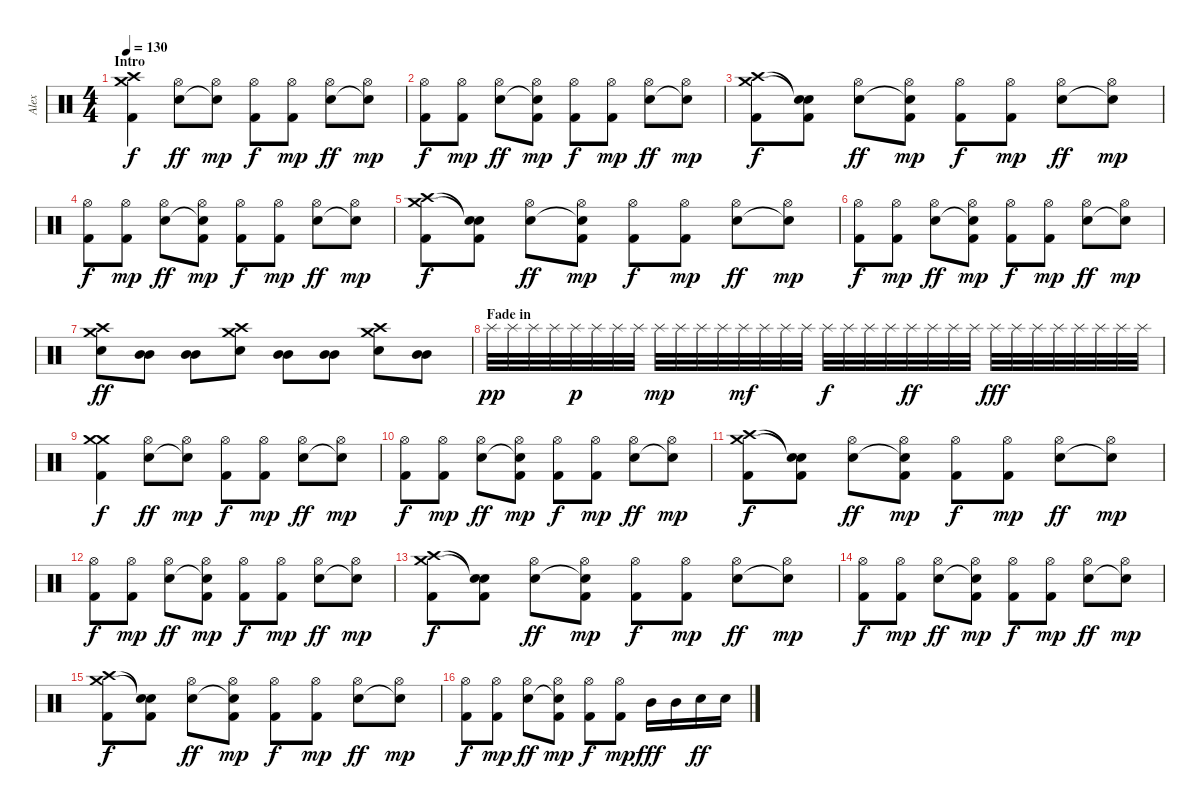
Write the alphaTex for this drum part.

\track ("Alex" "Alex") {instrument percussion}
\staff {score}
\articulation defaults
\ts (4 4)
\section ("" "Intro")
\tempo 130
\clef neutral
\ks c
("Crash medium (hit)" "Crash high (hit)" "Kick (hit) 2").4{dy f volume 5} ("Hi-Hat (open)" "Electric Snare (hit)").8{dy ff} ("Hi-Hat (open)" "Snare (hit)"{t}).8{dy mp} ("Hi-Hat (open)" "Kick (hit) 2").8{dy f} ("Hi-Hat (open)" "Kick (hit) 2").8{dy mp} ("Hi-Hat (open)" "Electric Snare (hit)").8{dy ff} ("Hi-Hat (open)" "Snare (hit)"{t}).8{dy mp} |
("Hi-Hat (open)" "Kick (hit) 2").8{dy f} ("Hi-Hat (open)" "Kick (hit) 2").8{dy mp} ("Hi-Hat (open)" "Electric Snare (hit)").8{dy ff} ("Hi-Hat (open)" "Snare (hit)"{t} "Kick (hit) 2").8{dy mp} ("Hi-Hat (open)" "Kick (hit) 2").8{dy f} ("Hi-Hat (open)" "Kick (hit) 2").8{dy mp} ("Hi-Hat (open)" "Electric Snare (hit)").8{dy ff} ("Hi-Hat (open)" "Snare (hit)"{t}).8{dy mp} |
("Crash medium (hit)" "Crash high (hit)" "Kick (hit) 2").8{dy f} ("Snare (hit)"{t} "Snare (hit)"{t} "Kick (hit) 2").8 ("Hi-Hat (open)" "Electric Snare (hit)").8{dy ff} ("Hi-Hat (open)" "Snare (hit)"{t} "Kick (hit) 2").8{dy mp} ("Hi-Hat (open)" "Kick (hit) 2").8{dy f} ("Hi-Hat (open)" "Kick (hit) 2").8{dy mp} ("Hi-Hat (open)" "Electric Snare (hit)").8{dy ff} ("Hi-Hat (open)" "Snare (hit)"{t}).8{dy mp} |
("Hi-Hat (open)" "Kick (hit) 2").8{dy f} ("Hi-Hat (open)" "Kick (hit) 2").8{dy mp} ("Hi-Hat (open)" "Electric Snare (hit)").8{dy ff} ("Hi-Hat (open)" "Snare (hit)"{t} "Kick (hit) 2").8{dy mp} ("Hi-Hat (open)" "Kick (hit) 2").8{dy f} ("Hi-Hat (open)" "Kick (hit) 2").8{dy mp} ("Hi-Hat (open)" "Electric Snare (hit)").8{dy ff} ("Hi-Hat (open)" "Snare (hit)"{t}).8{dy mp} |
("Crash medium (hit)" "Crash high (hit)" "Kick (hit) 2").8{dy f} ("Snare (hit)"{t} "Snare (hit)"{t} "Kick (hit) 2").8 ("Hi-Hat (open)" "Electric Snare (hit)").8{dy ff} ("Hi-Hat (open)" "Snare (hit)"{t} "Kick (hit) 2").8{dy mp} ("Hi-Hat (open)" "Kick (hit) 2").8{dy f} ("Hi-Hat (open)" "Kick (hit) 2").8{dy mp} ("Hi-Hat (open)" "Electric Snare (hit)").8{dy ff} ("Hi-Hat (open)" "Snare (hit)"{t}).8{dy mp} |
("Hi-Hat (open)" "Kick (hit) 2").8{dy f} ("Hi-Hat (open)" "Kick (hit) 2").8{dy mp} ("Hi-Hat (open)" "Electric Snare (hit)").8{dy ff} ("Hi-Hat (open)" "Snare (hit)"{t} "Kick (hit) 2").8{dy mp} ("Hi-Hat (open)" "Kick (hit) 2").8{dy f} ("Hi-Hat (open)" "Kick (hit) 2").8{dy mp} ("Hi-Hat (open)" "Electric Snare (hit)").8{dy ff} ("Hi-Hat (open)" "Snare (hit)"{t}).8{dy mp} |
("Crash high (hit)" "Crash medium (hit)" "Electric Snare (hit)").8{dy ff} ("Mid Tom (hit)" "Mid Tom (hit)").8 ("Mid Tom (hit)" "Mid Tom (hit)").8 ("Crash high (hit)" "Crash medium (hit)" "Electric Snare (hit)").8 ("Mid Tom (hit)" "Mid Tom (hit)").8 ("Mid Tom (hit)" "Mid Tom (hit)").8 ("Crash high (hit)" "Crash medium (hit)" "Electric Snare (hit)").8 ("Mid Tom (hit)" "Mid Tom (hit)").8 |
\section ("" "Fade in")
"Splash (hit)".32{dy pp volume 13} "Splash (hit)".32 "Splash (hit)".32 "Splash (hit)".32 "Splash (hit)".32{dy p} "Splash (hit)".32 "Splash (hit)".32 "Splash (hit)".32 "Splash (hit)".32{dy mp} "Splash (hit)".32 "Splash (hit)".32 "Splash (hit)".32 "Splash (hit)".32{dy mf} "Splash (hit)".32 "Splash (hit)".32 "Splash (hit)".32 "Splash (hit)".32{dy f} "Splash (hit)".32 "Splash (hit)".32 "Splash (hit)".32 "Splash (hit)".32{dy ff} "Splash (hit)".32 "Splash (hit)".32 "Splash (hit)".32 "Splash (hit)".32{dy fff} "Splash (hit)".32 "Splash (hit)".32 "Splash (hit)".32 "Splash (hit)".32 "Splash (hit)".32 "Splash (hit)".32 "Splash (hit)".32 |
("Crash medium (hit)" "Crash medium (hit)" "Kick (hit) 2").4{dy f} ("Hi-Hat (open)" "Electric Snare (hit)").8{dy ff} ("Hi-Hat (open)" "Snare (hit)"{t}).8{dy mp} ("Hi-Hat (open)" "Kick (hit) 2").8{dy f} ("Hi-Hat (open)" "Kick (hit) 2").8{dy mp} ("Hi-Hat (open)" "Electric Snare (hit)").8{dy ff} ("Hi-Hat (open)" "Snare (hit)"{t}).8{dy mp} |
("Hi-Hat (open)" "Kick (hit) 2").8{dy f} ("Hi-Hat (open)" "Kick (hit) 2").8{dy mp} ("Hi-Hat (open)" "Electric Snare (hit)").8{dy ff} ("Hi-Hat (open)" "Snare (hit)"{t} "Kick (hit) 2").8{dy mp} ("Hi-Hat (open)" "Kick (hit) 2").8{dy f} ("Hi-Hat (open)" "Kick (hit) 2").8{dy mp} ("Hi-Hat (open)" "Electric Snare (hit)").8{dy ff} ("Hi-Hat (open)" "Snare (hit)"{t}).8{dy mp} |
("Crash medium (hit)" "Crash high (hit)" "Kick (hit) 2").8{dy f} ("Snare (hit)"{t} "Snare (hit)"{t} "Kick (hit) 2").8 ("Hi-Hat (open)" "Electric Snare (hit)").8{dy ff} ("Hi-Hat (open)" "Snare (hit)"{t} "Kick (hit) 2").8{dy mp} ("Hi-Hat (open)" "Kick (hit) 2").8{dy f} ("Hi-Hat (open)" "Kick (hit) 2").8{dy mp} ("Hi-Hat (open)" "Electric Snare (hit)").8{dy ff} ("Hi-Hat (open)" "Snare (hit)"{t}).8{dy mp} |
("Hi-Hat (open)" "Kick (hit) 2").8{dy f} ("Hi-Hat (open)" "Kick (hit) 2").8{dy mp} ("Hi-Hat (open)" "Electric Snare (hit)").8{dy ff} ("Hi-Hat (open)" "Snare (hit)"{t} "Kick (hit) 2").8{dy mp} ("Hi-Hat (open)" "Kick (hit) 2").8{dy f} ("Hi-Hat (open)" "Kick (hit) 2").8{dy mp} ("Hi-Hat (open)" "Electric Snare (hit)").8{dy ff} ("Hi-Hat (open)" "Snare (hit)"{t}).8{dy mp} |
("Crash medium (hit)" "Crash high (hit)" "Kick (hit) 2").8{dy f} ("Snare (hit)"{t} "Snare (hit)"{t} "Kick (hit) 2").8 ("Hi-Hat (open)" "Electric Snare (hit)").8{dy ff} ("Hi-Hat (open)" "Snare (hit)"{t} "Kick (hit) 2").8{dy mp} ("Hi-Hat (open)" "Kick (hit) 2").8{dy f} ("Hi-Hat (open)" "Kick (hit) 2").8{dy mp} ("Hi-Hat (open)" "Electric Snare (hit)").8{dy ff} ("Hi-Hat (open)" "Snare (hit)"{t}).8{dy mp} |
("Hi-Hat (open)" "Kick (hit) 2").8{dy f} ("Hi-Hat (open)" "Kick (hit) 2").8{dy mp} ("Hi-Hat (open)" "Electric Snare (hit)").8{dy ff} ("Hi-Hat (open)" "Snare (hit)"{t} "Kick (hit) 2").8{dy mp} ("Hi-Hat (open)" "Kick (hit) 2").8{dy f} ("Hi-Hat (open)" "Kick (hit) 2").8{dy mp} ("Hi-Hat (open)" "Electric Snare (hit)").8{dy ff} ("Hi-Hat (open)" "Snare (hit)"{t}).8{dy mp} |
("Crash medium (hit)" "Crash high (hit)" "Kick (hit) 2").8{dy f} ("Snare (hit)"{t} "Snare (hit)"{t} "Kick (hit) 2").8 ("Hi-Hat (open)" "Electric Snare (hit)").8{dy ff} ("Hi-Hat (open)" "Snare (hit)"{t} "Kick (hit) 2").8{dy mp} ("Hi-Hat (open)" "Kick (hit) 2").8{dy f} ("Hi-Hat (open)" "Kick (hit) 2").8{dy mp} ("Hi-Hat (open)" "Electric Snare (hit)").8{dy ff} ("Hi-Hat (open)" "Snare (hit)"{t}).8{dy mp} |
("Hi-Hat (open)" "Kick (hit) 2").8{dy f} ("Hi-Hat (open)" "Kick (hit) 2").8{dy mp} ("Hi-Hat (open)" "Electric Snare (hit)").8{dy ff} ("Hi-Hat (open)" "Snare (hit)"{t} "Kick (hit) 2").8{dy mp} ("Hi-Hat (open)" "Kick (hit) 2").8{dy f} ("Hi-Hat (open)" "Kick (hit) 2").8{dy mp} "Mid Tom (hit)".16{dy fff} "Mid Tom (hit)".16 "Electric Snare (hit)".16{dy ff} "Electric Snare (hit)".16
